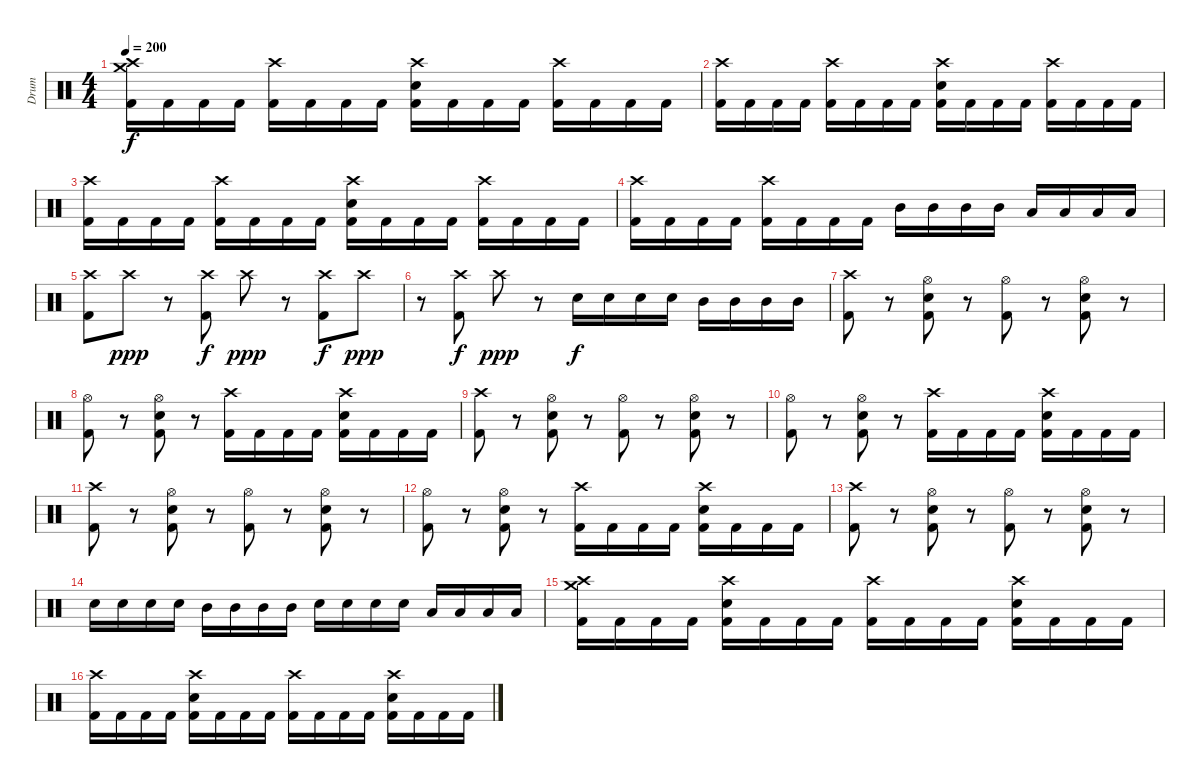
\track ("Drum" "Drum") {instrument percussion}
\staff {score}
\articulation defaults
\ts (4 4)
\tempo 200
\clef neutral
\ks c
("Crash medium (hit)" "Crash high (hit)" "Kick (hit) 2").16{dy f} "Kick (hit) 2".16 "Kick (hit) 2".16 "Kick (hit) 2".16 ("Crash high (hit)" "Kick (hit) 2").16 "Kick (hit) 2".16 "Kick (hit) 2".16 "Kick (hit) 2".16 ("Crash high (hit)" "Snare (hit) 2" "Kick (hit) 2").16 "Kick (hit) 2".16 "Kick (hit) 2".16 "Kick (hit) 2".16 ("Crash high (hit)" "Kick (hit) 2").16 "Kick (hit) 2".16 "Kick (hit) 2".16 "Kick (hit) 2".16 |
("Crash high (hit)" "Kick (hit) 2").16 "Kick (hit) 2".16 "Kick (hit) 2".16 "Kick (hit) 2".16 ("Crash high (hit)" "Kick (hit) 2").16 "Kick (hit) 2".16 "Kick (hit) 2".16 "Kick (hit) 2".16 ("Crash high (hit)" "Snare (hit) 2" "Kick (hit) 2").16 "Kick (hit) 2".16 "Kick (hit) 2".16 "Kick (hit) 2".16 ("Crash high (hit)" "Kick (hit) 2").16 "Kick (hit) 2".16 "Kick (hit) 2".16 "Kick (hit) 2".16 |
("Crash high (hit)" "Kick (hit) 2").16 "Kick (hit) 2".16 "Kick (hit) 2".16 "Kick (hit) 2".16 ("Crash high (hit)" "Kick (hit) 2").16 "Kick (hit) 2".16 "Kick (hit) 2".16 "Kick (hit) 2".16 ("Crash high (hit)" "Snare (hit) 2" "Kick (hit) 2").16 "Kick (hit) 2".16 "Kick (hit) 2".16 "Kick (hit) 2".16 ("Crash high (hit)" "Kick (hit) 2").16 "Kick (hit) 2".16 "Kick (hit) 2".16 "Kick (hit) 2".16 |
("Crash high (hit)" "Kick (hit) 2").16 "Kick (hit) 2".16 "Kick (hit) 2".16 "Kick (hit) 2".16 ("Crash high (hit)" "Kick (hit) 2").16 "Kick (hit) 2".16 "Kick (hit) 2".16 "Kick (hit) 2".16 "Mid Tom (hit)".16 "Mid Tom (hit)".16 "Mid Tom (hit)".16 "Mid Tom (hit)".16 "Low Tom (hit)".16 "Low Tom (hit)".16 "Low Tom (hit)".16 "Low Tom (hit)".16 |
("Crash high (hit)" "Kick (hit) 2").8 "Crash high (hit)".8{dy ppp} r.8 ("Crash high (hit)" "Kick (hit) 2").8{dy f} "Crash high (hit)".8{dy ppp} r.8 ("Crash high (hit)" "Kick (hit) 2").8{dy f} "Crash high (hit)".8{dy ppp} |
r.8 ("Crash high (hit)" "Kick (hit) 2").8{dy f} "Crash high (hit)".8{dy ppp} r.8 "Snare (hit) 2".16{dy f} "Snare (hit) 2".16 "Snare (hit) 2".16 "Snare (hit) 2".16 "Mid Tom (hit)".16 "Mid Tom (hit)".16 "Mid Tom (hit)".16 "Mid Tom (hit)".16 |
("Crash high (hit)" "Kick (hit) 2").8 r.8 ("Hi-Hat (open)" "Snare (hit) 2" "Kick (hit) 2").8 r.8 ("Hi-Hat (open)" "Kick (hit) 2").8 r.8 ("Hi-Hat (open)" "Snare (hit) 2" "Kick (hit) 2").8 r.8 |
("Hi-Hat (open)" "Kick (hit) 2").8 r.8 ("Hi-Hat (open)" "Snare (hit) 2" "Kick (hit) 2").8 r.8 ("Crash high (hit)" "Kick (hit) 2").16 "Kick (hit) 2".16 "Kick (hit) 2".16 "Kick (hit) 2".16 ("Crash high (hit)" "Snare (hit) 2" "Kick (hit) 2").16 "Kick (hit) 2".16 "Kick (hit) 2".16 "Kick (hit) 2".16 |
("Crash high (hit)" "Kick (hit) 2").8 r.8 ("Hi-Hat (open)" "Snare (hit) 2" "Kick (hit) 2").8 r.8 ("Hi-Hat (open)" "Kick (hit) 2").8 r.8 ("Hi-Hat (open)" "Snare (hit) 2" "Kick (hit) 2").8 r.8 |
("Hi-Hat (open)" "Kick (hit) 2").8 r.8 ("Hi-Hat (open)" "Snare (hit) 2" "Kick (hit) 2").8 r.8 ("Crash high (hit)" "Kick (hit) 2").16 "Kick (hit) 2".16 "Kick (hit) 2".16 "Kick (hit) 2".16 ("Crash high (hit)" "Snare (hit) 2" "Kick (hit) 2").16 "Kick (hit) 2".16 "Kick (hit) 2".16 "Kick (hit) 2".16 |
("Crash high (hit)" "Kick (hit) 2").8 r.8 ("Hi-Hat (open)" "Snare (hit) 2" "Kick (hit) 2").8 r.8 ("Hi-Hat (open)" "Kick (hit) 2").8 r.8 ("Hi-Hat (open)" "Snare (hit) 2" "Kick (hit) 2").8 r.8 |
("Hi-Hat (open)" "Kick (hit) 2").8 r.8 ("Hi-Hat (open)" "Snare (hit) 2" "Kick (hit) 2").8 r.8 ("Crash high (hit)" "Kick (hit) 2").16 "Kick (hit) 2".16 "Kick (hit) 2".16 "Kick (hit) 2".16 ("Crash high (hit)" "Snare (hit) 2" "Kick (hit) 2").16 "Kick (hit) 2".16 "Kick (hit) 2".16 "Kick (hit) 2".16 |
("Crash high (hit)" "Kick (hit) 2").8 r.8 ("Hi-Hat (open)" "Snare (hit) 2" "Kick (hit) 2").8 r.8 ("Hi-Hat (open)" "Kick (hit) 2").8 r.8 ("Hi-Hat (open)" "Snare (hit) 2" "Kick (hit) 2").8 r.8 |
"Snare (hit) 2".16 "Snare (hit) 2".16 "Snare (hit) 2".16 "Snare (hit) 2".16 "Mid Tom (hit)".16 "Mid Tom (hit)".16 "Mid Tom (hit)".16 "Mid Tom (hit)".16 "Snare (hit) 2".16 "Snare (hit) 2".16 "Snare (hit) 2".16 "Snare (hit) 2".16 "Low Tom (hit)".16 "Low Tom (hit)".16 "Low Tom (hit)".16 "Low Tom (hit)".16 |
("Crash medium (hit)" "Crash high (hit)" "Kick (hit) 2").16 "Kick (hit) 2".16 "Kick (hit) 2".16 "Kick (hit) 2".16 ("Crash high (hit)" "Snare (hit) 2" "Kick (hit) 2").16 "Kick (hit) 2".16 "Kick (hit) 2".16 "Kick (hit) 2".16 ("Crash high (hit)" "Kick (hit) 2").16 "Kick (hit) 2".16 "Kick (hit) 2".16 "Kick (hit) 2".16 ("Crash high (hit)" "Snare (hit) 2" "Kick (hit) 2").16 "Kick (hit) 2".16 "Kick (hit) 2".16 "Kick (hit) 2".16 |
("Crash high (hit)" "Kick (hit) 2").16 "Kick (hit) 2".16 "Kick (hit) 2".16 "Kick (hit) 2".16 ("Crash high (hit)" "Snare (hit) 2" "Kick (hit) 2").16 "Kick (hit) 2".16 "Kick (hit) 2".16 "Kick (hit) 2".16 ("Crash high (hit)" "Kick (hit) 2").16 "Kick (hit) 2".16 "Kick (hit) 2".16 "Kick (hit) 2".16 ("Crash high (hit)" "Snare (hit) 2" "Kick (hit) 2").16 "Kick (hit) 2".16 "Kick (hit) 2".16 "Kick (hit) 2".16
